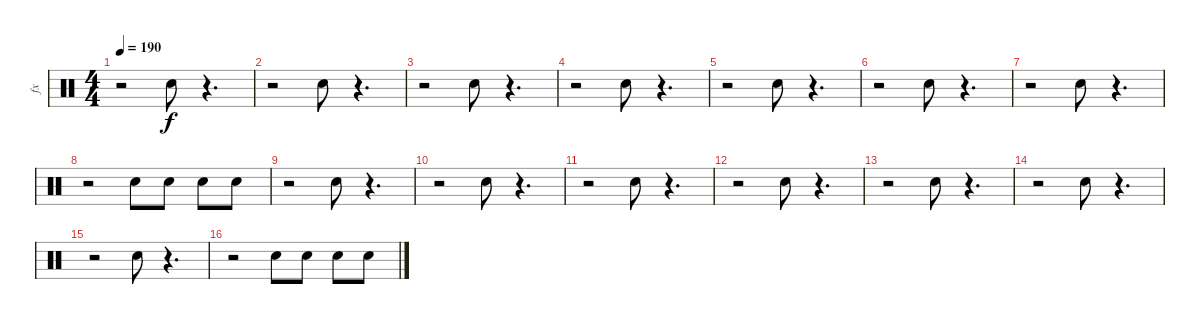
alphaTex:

\track ("fx" "fx") {instrument percussion}
\staff {score}
\articulation defaults
\ts (4 4)
\tempo 190
\clef neutral
\ks c
r.2{dy f} "Snare (hit) 2".8 r.4{d} |
r.2 "Snare (hit) 2".8 r.4{d} |
r.2 "Snare (hit) 2".8 r.4{d} |
r.2 "Snare (hit) 2".8 r.4{d} |
r.2 "Snare (hit) 2".8 r.4{d} |
r.2 "Snare (hit) 2".8 r.4{d} |
r.2 "Snare (hit) 2".8 r.4{d} |
r.2 "Snare (hit) 2".8 "Snare (hit) 2".8 "Snare (hit) 2".8 "Snare (hit) 2".8 |
r.2 "Snare (hit) 2".8 r.4{d} |
r.2 "Snare (hit) 2".8 r.4{d} |
r.2 "Snare (hit) 2".8 r.4{d} |
r.2 "Snare (hit) 2".8 r.4{d} |
r.2 "Snare (hit) 2".8 r.4{d} |
r.2 "Snare (hit) 2".8 r.4{d} |
r.2 "Snare (hit) 2".8 r.4{d} |
r.2 "Snare (hit) 2".8 "Snare (hit) 2".8 "Snare (hit) 2".8 "Snare (hit) 2".8
